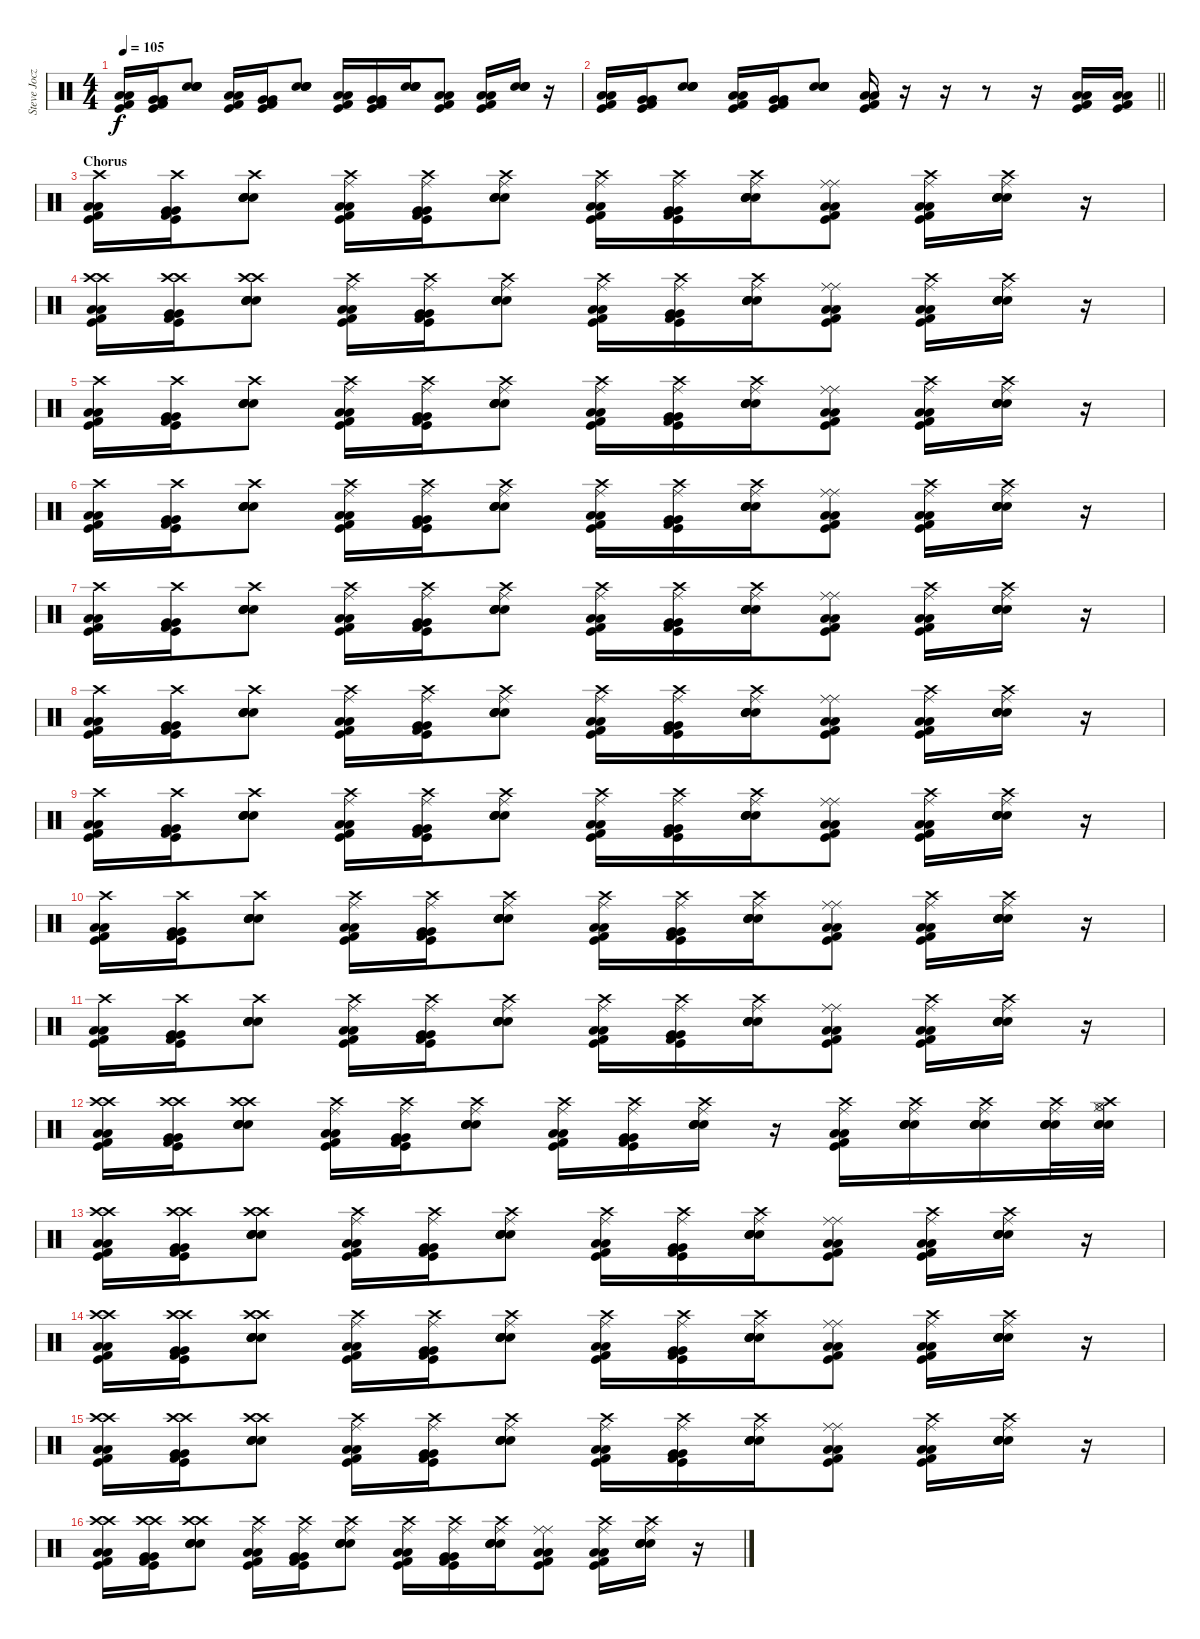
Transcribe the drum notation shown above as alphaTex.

\track ("Steve Jocz" "Steve Jocz") {instrument percussion}
\staff {score}
\articulation defaults
\ts (4 4)
\tempo 105
\clef neutral
\ks c
("Low Floor Tom (hit)" "Low Floor Tom (hit)" "Kick (hit)" "Kick (hit) 2").16{dy f} ("Very Low Tom (hit)" "Very Low Tom (hit)" "Kick (hit)" "Kick (hit) 2").16 ("Snare (hit) 2" "Snare (hit) 2" "Electric Snare (hit)" "Electric Snare (hit)").8 ("Low Floor Tom (hit)" "Low Floor Tom (hit)" "Kick (hit)" "Kick (hit) 2").16 ("Very Low Tom (hit)" "Very Low Tom (hit)" "Kick (hit)" "Kick (hit) 2").16 ("Snare (hit) 2" "Snare (hit) 2" "Electric Snare (hit)" "Electric Snare (hit)").8 ("Low Floor Tom (hit)" "Low Floor Tom (hit)" "Kick (hit)" "Kick (hit) 2").16 ("Very Low Tom (hit)" "Very Low Tom (hit)" "Kick (hit)" "Kick (hit) 2").16 ("Snare (hit) 2" "Snare (hit) 2" "Electric Snare (hit)" "Electric Snare (hit)").16 ("Low Floor Tom (hit)" "Low Floor Tom (hit)" "Kick (hit)" "Kick (hit) 2").8 ("Low Floor Tom (hit)" "Low Floor Tom (hit)" "Kick (hit)" "Kick (hit) 2").16 ("Snare (hit) 2" "Snare (hit) 2" "Electric Snare (hit)" "Electric Snare (hit)").16 r.16 |
\barLineRight lightlight
("Low Floor Tom (hit)" "Low Floor Tom (hit)" "Kick (hit)" "Kick (hit) 2").16 ("Very Low Tom (hit)" "Very Low Tom (hit)" "Kick (hit)" "Kick (hit) 2").16 ("Snare (hit) 2" "Snare (hit) 2" "Electric Snare (hit)" "Electric Snare (hit)").8 ("Low Floor Tom (hit)" "Low Floor Tom (hit)" "Kick (hit)" "Kick (hit) 2").16 ("Very Low Tom (hit)" "Very Low Tom (hit)" "Kick (hit)" "Kick (hit) 2").16 ("Snare (hit) 2" "Snare (hit) 2" "Electric Snare (hit)" "Electric Snare (hit)").8 ("Low Floor Tom (hit)" "Low Floor Tom (hit)" "Kick (hit)" "Kick (hit) 2").16 r.16 r.16 r.8 r.16 ("Low Floor Tom (hit)" "Low Floor Tom (hit)" "Kick (hit)" "Kick (hit) 2").16 ("Low Floor Tom (hit)" "Low Floor Tom (hit)" "Kick (hit)" "Kick (hit) 2").16 |
\section ("" "Chorus")
("Low Floor Tom (hit)" "Crash high (hit)" "Low Floor Tom (hit)" "Kick (hit)" "Kick (hit) 2").16 ("Very Low Tom (hit)" "Crash high (hit)" "Very Low Tom (hit)" "Kick (hit)" "Kick (hit) 2").16 ("Snare (hit) 2" "Crash high (hit)" "Snare (hit) 2" "Electric Snare (hit)" "Electric Snare (hit)").8 ("Low Floor Tom (hit)" "Ride (middle)" "Low Floor Tom (hit)" "Kick (hit)" "Crash high (hit)" "Kick (hit) 2").16 ("Very Low Tom (hit)" "Ride (middle)" "Very Low Tom (hit)" "Kick (hit)" "Crash high (hit)" "Kick (hit) 2").16 ("Snare (hit) 2" "Ride (middle)" "Snare (hit) 2" "Electric Snare (hit)" "Crash high (hit)" "Electric Snare (hit)").8 ("Low Floor Tom (hit)" "Ride (middle)" "Low Floor Tom (hit)" "Kick (hit)" "Crash high (hit)" "Kick (hit) 2").16 ("Very Low Tom (hit)" "Ride (middle)" "Very Low Tom (hit)" "Kick (hit)" "Crash high (hit)" "Kick (hit) 2").16 ("Snare (hit) 2" "Ride (middle)" "Snare (hit) 2" "Electric Snare (hit)" "Crash high (hit)" "Electric Snare (hit)").16 ("Low Floor Tom (hit)" "Ride (middle)" "Low Floor Tom (hit)" "Kick (hit)" "Ride (middle)" "Kick (hit) 2").8 ("Low Floor Tom (hit)" "Ride (middle)" "Low Floor Tom (hit)" "Kick (hit)" "Crash high (hit)" "Kick (hit) 2").16 ("Snare (hit) 2" "Ride (middle)" "Snare (hit) 2" "Electric Snare (hit)" "Crash high (hit)" "Electric Snare (hit)").16 r.16 |
("Low Floor Tom (hit)" "Crash high (hit)" "Low Floor Tom (hit)" "Kick (hit)" "Crash high (hit)" "Kick (hit) 2").16 ("Very Low Tom (hit)" "Crash high (hit)" "Very Low Tom (hit)" "Kick (hit)" "Crash high (hit)" "Kick (hit) 2").16 ("Snare (hit) 2" "Crash high (hit)" "Snare (hit) 2" "Electric Snare (hit)" "Crash high (hit)" "Electric Snare (hit)").8 ("Low Floor Tom (hit)" "Ride (middle)" "Low Floor Tom (hit)" "Kick (hit)" "Crash high (hit)" "Kick (hit) 2").16 ("Very Low Tom (hit)" "Ride (middle)" "Very Low Tom (hit)" "Kick (hit)" "Crash high (hit)" "Kick (hit) 2").16 ("Snare (hit) 2" "Ride (middle)" "Snare (hit) 2" "Electric Snare (hit)" "Crash high (hit)" "Electric Snare (hit)").8 ("Low Floor Tom (hit)" "Ride (middle)" "Low Floor Tom (hit)" "Kick (hit)" "Crash high (hit)" "Kick (hit) 2").16 ("Very Low Tom (hit)" "Ride (middle)" "Very Low Tom (hit)" "Kick (hit)" "Crash high (hit)" "Kick (hit) 2").16 ("Snare (hit) 2" "Ride (middle)" "Snare (hit) 2" "Electric Snare (hit)" "Crash high (hit)" "Electric Snare (hit)").16 ("Low Floor Tom (hit)" "Ride (middle)" "Low Floor Tom (hit)" "Kick (hit)" "Ride (middle)" "Kick (hit) 2").8 ("Low Floor Tom (hit)" "Ride (middle)" "Low Floor Tom (hit)" "Kick (hit)" "Crash high (hit)" "Kick (hit) 2").16 ("Snare (hit) 2" "Ride (middle)" "Snare (hit) 2" "Electric Snare (hit)" "Crash high (hit)" "Electric Snare (hit)").16 r.16 |
("Low Floor Tom (hit)" "Crash high (hit)" "Low Floor Tom (hit)" "Kick (hit)" "Kick (hit) 2").16 ("Very Low Tom (hit)" "Crash high (hit)" "Very Low Tom (hit)" "Kick (hit)" "Kick (hit) 2").16 ("Snare (hit) 2" "Crash high (hit)" "Snare (hit) 2" "Electric Snare (hit)" "Electric Snare (hit)").8 ("Low Floor Tom (hit)" "Ride (middle)" "Low Floor Tom (hit)" "Kick (hit)" "Crash high (hit)" "Kick (hit) 2").16 ("Very Low Tom (hit)" "Ride (middle)" "Very Low Tom (hit)" "Kick (hit)" "Crash high (hit)" "Kick (hit) 2").16 ("Snare (hit) 2" "Ride (middle)" "Snare (hit) 2" "Electric Snare (hit)" "Crash high (hit)" "Electric Snare (hit)").8 ("Low Floor Tom (hit)" "Ride (middle)" "Low Floor Tom (hit)" "Kick (hit)" "Crash high (hit)" "Kick (hit) 2").16 ("Very Low Tom (hit)" "Ride (middle)" "Very Low Tom (hit)" "Kick (hit)" "Crash high (hit)" "Kick (hit) 2").16 ("Snare (hit) 2" "Ride (middle)" "Snare (hit) 2" "Electric Snare (hit)" "Crash high (hit)" "Electric Snare (hit)").16 ("Low Floor Tom (hit)" "Ride (middle)" "Low Floor Tom (hit)" "Kick (hit)" "Ride (middle)" "Kick (hit) 2").8 ("Low Floor Tom (hit)" "Ride (middle)" "Low Floor Tom (hit)" "Kick (hit)" "Crash high (hit)" "Kick (hit) 2").16 ("Snare (hit) 2" "Ride (middle)" "Snare (hit) 2" "Electric Snare (hit)" "Crash high (hit)" "Electric Snare (hit)").16 r.16 |
("Low Floor Tom (hit)" "Crash high (hit)" "Low Floor Tom (hit)" "Kick (hit)" "Kick (hit) 2").16 ("Very Low Tom (hit)" "Crash high (hit)" "Very Low Tom (hit)" "Kick (hit)" "Kick (hit) 2").16 ("Snare (hit) 2" "Crash high (hit)" "Snare (hit) 2" "Electric Snare (hit)" "Electric Snare (hit)").8 ("Low Floor Tom (hit)" "Ride (middle)" "Low Floor Tom (hit)" "Kick (hit)" "Crash high (hit)" "Kick (hit) 2").16 ("Very Low Tom (hit)" "Ride (middle)" "Very Low Tom (hit)" "Kick (hit)" "Crash high (hit)" "Kick (hit) 2").16 ("Snare (hit) 2" "Ride (middle)" "Snare (hit) 2" "Electric Snare (hit)" "Crash high (hit)" "Electric Snare (hit)").8 ("Low Floor Tom (hit)" "Ride (middle)" "Low Floor Tom (hit)" "Kick (hit)" "Crash high (hit)" "Kick (hit) 2").16 ("Very Low Tom (hit)" "Ride (middle)" "Very Low Tom (hit)" "Kick (hit)" "Crash high (hit)" "Kick (hit) 2").16 ("Snare (hit) 2" "Ride (middle)" "Snare (hit) 2" "Electric Snare (hit)" "Crash high (hit)" "Electric Snare (hit)").16 ("Low Floor Tom (hit)" "Ride (middle)" "Low Floor Tom (hit)" "Kick (hit)" "Ride (middle)" "Kick (hit) 2").8 ("Low Floor Tom (hit)" "Ride (middle)" "Low Floor Tom (hit)" "Kick (hit)" "Crash high (hit)" "Kick (hit) 2").16 ("Snare (hit) 2" "Ride (middle)" "Snare (hit) 2" "Electric Snare (hit)" "Crash high (hit)" "Electric Snare (hit)").16 r.16 |
("Low Floor Tom (hit)" "Crash high (hit)" "Low Floor Tom (hit)" "Kick (hit)" "Kick (hit) 2").16 ("Very Low Tom (hit)" "Crash high (hit)" "Very Low Tom (hit)" "Kick (hit)" "Kick (hit) 2").16 ("Snare (hit) 2" "Crash high (hit)" "Snare (hit) 2" "Electric Snare (hit)" "Electric Snare (hit)").8 ("Low Floor Tom (hit)" "Ride (middle)" "Low Floor Tom (hit)" "Kick (hit)" "Crash high (hit)" "Kick (hit) 2").16 ("Very Low Tom (hit)" "Ride (middle)" "Very Low Tom (hit)" "Kick (hit)" "Crash high (hit)" "Kick (hit) 2").16 ("Snare (hit) 2" "Ride (middle)" "Snare (hit) 2" "Electric Snare (hit)" "Crash high (hit)" "Electric Snare (hit)").8 ("Low Floor Tom (hit)" "Ride (middle)" "Low Floor Tom (hit)" "Kick (hit)" "Crash high (hit)" "Kick (hit) 2").16 ("Very Low Tom (hit)" "Ride (middle)" "Very Low Tom (hit)" "Kick (hit)" "Crash high (hit)" "Kick (hit) 2").16 ("Snare (hit) 2" "Ride (middle)" "Snare (hit) 2" "Electric Snare (hit)" "Crash high (hit)" "Electric Snare (hit)").16 ("Low Floor Tom (hit)" "Ride (middle)" "Low Floor Tom (hit)" "Kick (hit)" "Ride (middle)" "Kick (hit) 2").8 ("Low Floor Tom (hit)" "Ride (middle)" "Low Floor Tom (hit)" "Kick (hit)" "Crash high (hit)" "Kick (hit) 2").16 ("Snare (hit) 2" "Ride (middle)" "Snare (hit) 2" "Electric Snare (hit)" "Crash high (hit)" "Electric Snare (hit)").16 r.16 |
("Low Floor Tom (hit)" "Crash high (hit)" "Low Floor Tom (hit)" "Kick (hit)" "Kick (hit) 2").16 ("Very Low Tom (hit)" "Crash high (hit)" "Very Low Tom (hit)" "Kick (hit)" "Kick (hit) 2").16 ("Snare (hit) 2" "Crash high (hit)" "Snare (hit) 2" "Electric Snare (hit)" "Electric Snare (hit)").8 ("Low Floor Tom (hit)" "Ride (middle)" "Low Floor Tom (hit)" "Kick (hit)" "Crash high (hit)" "Kick (hit) 2").16 ("Very Low Tom (hit)" "Ride (middle)" "Very Low Tom (hit)" "Kick (hit)" "Crash high (hit)" "Kick (hit) 2").16 ("Snare (hit) 2" "Ride (middle)" "Snare (hit) 2" "Electric Snare (hit)" "Crash high (hit)" "Electric Snare (hit)").8 ("Low Floor Tom (hit)" "Ride (middle)" "Low Floor Tom (hit)" "Kick (hit)" "Crash high (hit)" "Kick (hit) 2").16 ("Very Low Tom (hit)" "Ride (middle)" "Very Low Tom (hit)" "Kick (hit)" "Crash high (hit)" "Kick (hit) 2").16 ("Snare (hit) 2" "Ride (middle)" "Snare (hit) 2" "Electric Snare (hit)" "Crash high (hit)" "Electric Snare (hit)").16 ("Low Floor Tom (hit)" "Ride (middle)" "Low Floor Tom (hit)" "Kick (hit)" "Ride (middle)" "Kick (hit) 2").8 ("Low Floor Tom (hit)" "Ride (middle)" "Low Floor Tom (hit)" "Kick (hit)" "Crash high (hit)" "Kick (hit) 2").16 ("Snare (hit) 2" "Ride (middle)" "Snare (hit) 2" "Electric Snare (hit)" "Crash high (hit)" "Electric Snare (hit)").16 r.16 |
("Low Floor Tom (hit)" "Crash high (hit)" "Low Floor Tom (hit)" "Kick (hit)" "Kick (hit) 2").16 ("Very Low Tom (hit)" "Crash high (hit)" "Very Low Tom (hit)" "Kick (hit)" "Kick (hit) 2").16 ("Snare (hit) 2" "Crash high (hit)" "Snare (hit) 2" "Electric Snare (hit)" "Electric Snare (hit)").8 ("Low Floor Tom (hit)" "Ride (middle)" "Low Floor Tom (hit)" "Kick (hit)" "Crash high (hit)" "Kick (hit) 2").16 ("Very Low Tom (hit)" "Ride (middle)" "Very Low Tom (hit)" "Kick (hit)" "Crash high (hit)" "Kick (hit) 2").16 ("Snare (hit) 2" "Ride (middle)" "Snare (hit) 2" "Electric Snare (hit)" "Crash high (hit)" "Electric Snare (hit)").8 ("Low Floor Tom (hit)" "Ride (middle)" "Low Floor Tom (hit)" "Kick (hit)" "Crash high (hit)" "Kick (hit) 2").16 ("Very Low Tom (hit)" "Ride (middle)" "Very Low Tom (hit)" "Kick (hit)" "Crash high (hit)" "Kick (hit) 2").16 ("Snare (hit) 2" "Ride (middle)" "Snare (hit) 2" "Electric Snare (hit)" "Crash high (hit)" "Electric Snare (hit)").16 ("Low Floor Tom (hit)" "Ride (middle)" "Low Floor Tom (hit)" "Kick (hit)" "Ride (middle)" "Kick (hit) 2").8 ("Low Floor Tom (hit)" "Ride (middle)" "Low Floor Tom (hit)" "Kick (hit)" "Crash high (hit)" "Kick (hit) 2").16 ("Snare (hit) 2" "Ride (middle)" "Snare (hit) 2" "Electric Snare (hit)" "Crash high (hit)" "Electric Snare (hit)").16 r.16 |
("Low Floor Tom (hit)" "Crash high (hit)" "Low Floor Tom (hit)" "Kick (hit)" "Kick (hit) 2").16 ("Very Low Tom (hit)" "Crash high (hit)" "Very Low Tom (hit)" "Kick (hit)" "Kick (hit) 2").16 ("Snare (hit) 2" "Crash high (hit)" "Snare (hit) 2" "Electric Snare (hit)" "Electric Snare (hit)").8 ("Low Floor Tom (hit)" "Ride (middle)" "Low Floor Tom (hit)" "Kick (hit)" "Crash high (hit)" "Kick (hit) 2").16 ("Very Low Tom (hit)" "Ride (middle)" "Very Low Tom (hit)" "Kick (hit)" "Crash high (hit)" "Kick (hit) 2").16 ("Snare (hit) 2" "Ride (middle)" "Snare (hit) 2" "Electric Snare (hit)" "Crash high (hit)" "Electric Snare (hit)").8 ("Low Floor Tom (hit)" "Ride (middle)" "Low Floor Tom (hit)" "Kick (hit)" "Crash high (hit)" "Kick (hit) 2").16 ("Very Low Tom (hit)" "Ride (middle)" "Very Low Tom (hit)" "Kick (hit)" "Crash high (hit)" "Kick (hit) 2").16 ("Snare (hit) 2" "Ride (middle)" "Snare (hit) 2" "Electric Snare (hit)" "Crash high (hit)" "Electric Snare (hit)").16 ("Low Floor Tom (hit)" "Ride (middle)" "Low Floor Tom (hit)" "Kick (hit)" "Ride (middle)" "Kick (hit) 2").8 ("Low Floor Tom (hit)" "Ride (middle)" "Low Floor Tom (hit)" "Kick (hit)" "Crash high (hit)" "Kick (hit) 2").16 ("Snare (hit) 2" "Ride (middle)" "Snare (hit) 2" "Electric Snare (hit)" "Crash high (hit)" "Electric Snare (hit)").16 r.16 |
("Low Floor Tom (hit)" "Crash high (hit)" "Low Floor Tom (hit)" "Kick (hit)" "Kick (hit) 2").16 ("Very Low Tom (hit)" "Crash high (hit)" "Very Low Tom (hit)" "Kick (hit)" "Kick (hit) 2").16 ("Snare (hit) 2" "Crash high (hit)" "Snare (hit) 2" "Electric Snare (hit)" "Electric Snare (hit)").8 ("Low Floor Tom (hit)" "Ride (middle)" "Low Floor Tom (hit)" "Kick (hit)" "Crash high (hit)" "Kick (hit) 2").16 ("Very Low Tom (hit)" "Ride (middle)" "Very Low Tom (hit)" "Kick (hit)" "Crash high (hit)" "Kick (hit) 2").16 ("Snare (hit) 2" "Ride (middle)" "Snare (hit) 2" "Electric Snare (hit)" "Crash high (hit)" "Electric Snare (hit)").8 ("Low Floor Tom (hit)" "Ride (middle)" "Low Floor Tom (hit)" "Kick (hit)" "Crash high (hit)" "Kick (hit) 2").16 ("Very Low Tom (hit)" "Ride (middle)" "Very Low Tom (hit)" "Kick (hit)" "Crash high (hit)" "Kick (hit) 2").16 ("Snare (hit) 2" "Ride (middle)" "Snare (hit) 2" "Electric Snare (hit)" "Crash high (hit)" "Electric Snare (hit)").16 ("Low Floor Tom (hit)" "Ride (middle)" "Low Floor Tom (hit)" "Kick (hit)" "Ride (middle)" "Kick (hit) 2").8 ("Low Floor Tom (hit)" "Ride (middle)" "Low Floor Tom (hit)" "Kick (hit)" "Crash high (hit)" "Kick (hit) 2").16 ("Snare (hit) 2" "Ride (middle)" "Snare (hit) 2" "Electric Snare (hit)" "Crash high (hit)" "Electric Snare (hit)").16 r.16 |
("Low Floor Tom (hit)" "Crash high (hit)" "Low Floor Tom (hit)" "Kick (hit)" "Crash high (hit)" "Kick (hit) 2").16 ("Very Low Tom (hit)" "Crash high (hit)" "Very Low Tom (hit)" "Kick (hit)" "Crash high (hit)" "Kick (hit) 2").16 ("Snare (hit) 2" "Crash high (hit)" "Snare (hit) 2" "Electric Snare (hit)" "Crash high (hit)" "Electric Snare (hit)").8 ("Low Floor Tom (hit)" "Ride (middle)" "Low Floor Tom (hit)" "Kick (hit)" "Crash high (hit)" "Kick (hit) 2").16 ("Very Low Tom (hit)" "Ride (middle)" "Very Low Tom (hit)" "Kick (hit)" "Crash high (hit)" "Kick (hit) 2").16 ("Snare (hit) 2" "Ride (middle)" "Snare (hit) 2" "Electric Snare (hit)" "Crash high (hit)" "Electric Snare (hit)").8 ("Low Floor Tom (hit)" "Ride (middle)" "Low Floor Tom (hit)" "Kick (hit)" "Crash high (hit)" "Kick (hit) 2").16 ("Very Low Tom (hit)" "Ride (middle)" "Very Low Tom (hit)" "Kick (hit)" "Crash high (hit)" "Kick (hit) 2").16 ("Snare (hit) 2" "Ride (middle)" "Snare (hit) 2" "Electric Snare (hit)" "Crash high (hit)" "Electric Snare (hit)").16 r.16 ("Low Floor Tom (hit)" "Ride (middle)" "Low Floor Tom (hit)" "Kick (hit)" "Crash high (hit)" "Kick (hit) 2").16 ("Snare (hit) 2" "Ride (middle)" "Snare (hit) 2" "Electric Snare (hit)" "Crash high (hit)" "Electric Snare (hit)").16 ("Snare (hit) 2" "Ride (middle)" "Snare (hit) 2" "Electric Snare (hit)" "Crash high (hit)" "Electric Snare (hit)").16 ("Snare (hit) 2" "Ride (middle)" "Snare (hit) 2" "Electric Snare (hit)" "Crash high (hit)" "Electric Snare (hit)").32 ("Snare (hit) 2" "Snare (hit) 2" "Electric Snare (hit)" "Crash high (hit)" "Hi-Hat (open)" "Hi-Hat (closed)").32 |
("Low Floor Tom (hit)" "Crash high (hit)" "Low Floor Tom (hit)" "Kick (hit)" "Crash high (hit)" "Kick (hit) 2").16 ("Very Low Tom (hit)" "Crash high (hit)" "Very Low Tom (hit)" "Kick (hit)" "Crash high (hit)" "Kick (hit) 2").16 ("Snare (hit) 2" "Crash high (hit)" "Snare (hit) 2" "Electric Snare (hit)" "Crash high (hit)" "Electric Snare (hit)").8 ("Low Floor Tom (hit)" "Ride (middle)" "Low Floor Tom (hit)" "Kick (hit)" "Crash high (hit)" "Kick (hit) 2").16 ("Very Low Tom (hit)" "Ride (middle)" "Very Low Tom (hit)" "Kick (hit)" "Crash high (hit)" "Kick (hit) 2").16 ("Snare (hit) 2" "Ride (middle)" "Snare (hit) 2" "Electric Snare (hit)" "Crash high (hit)" "Electric Snare (hit)").8 ("Low Floor Tom (hit)" "Ride (middle)" "Low Floor Tom (hit)" "Kick (hit)" "Crash high (hit)" "Kick (hit) 2").16 ("Very Low Tom (hit)" "Ride (middle)" "Very Low Tom (hit)" "Kick (hit)" "Crash high (hit)" "Kick (hit) 2").16 ("Snare (hit) 2" "Ride (middle)" "Snare (hit) 2" "Electric Snare (hit)" "Crash high (hit)" "Electric Snare (hit)").16 ("Low Floor Tom (hit)" "Ride (middle)" "Low Floor Tom (hit)" "Kick (hit)" "Ride (middle)" "Kick (hit) 2").8 ("Low Floor Tom (hit)" "Ride (middle)" "Low Floor Tom (hit)" "Kick (hit)" "Crash high (hit)" "Kick (hit) 2").16 ("Snare (hit) 2" "Ride (middle)" "Snare (hit) 2" "Electric Snare (hit)" "Crash high (hit)" "Electric Snare (hit)").16 r.16 |
("Low Floor Tom (hit)" "Crash high (hit)" "Low Floor Tom (hit)" "Kick (hit)" "Crash high (hit)" "Kick (hit) 2").16 ("Very Low Tom (hit)" "Crash high (hit)" "Very Low Tom (hit)" "Kick (hit)" "Crash high (hit)" "Kick (hit) 2").16 ("Snare (hit) 2" "Crash high (hit)" "Snare (hit) 2" "Electric Snare (hit)" "Crash high (hit)" "Electric Snare (hit)").8 ("Low Floor Tom (hit)" "Ride (middle)" "Low Floor Tom (hit)" "Kick (hit)" "Crash high (hit)" "Kick (hit) 2").16 ("Very Low Tom (hit)" "Ride (middle)" "Very Low Tom (hit)" "Kick (hit)" "Crash high (hit)" "Kick (hit) 2").16 ("Snare (hit) 2" "Ride (middle)" "Snare (hit) 2" "Electric Snare (hit)" "Crash high (hit)" "Electric Snare (hit)").8 ("Low Floor Tom (hit)" "Ride (middle)" "Low Floor Tom (hit)" "Kick (hit)" "Crash high (hit)" "Kick (hit) 2").16 ("Very Low Tom (hit)" "Ride (middle)" "Very Low Tom (hit)" "Kick (hit)" "Crash high (hit)" "Kick (hit) 2").16 ("Snare (hit) 2" "Ride (middle)" "Snare (hit) 2" "Electric Snare (hit)" "Crash high (hit)" "Electric Snare (hit)").16 ("Low Floor Tom (hit)" "Ride (middle)" "Low Floor Tom (hit)" "Kick (hit)" "Ride (middle)" "Kick (hit) 2").8 ("Low Floor Tom (hit)" "Ride (middle)" "Low Floor Tom (hit)" "Kick (hit)" "Crash high (hit)" "Kick (hit) 2").16 ("Snare (hit) 2" "Ride (middle)" "Snare (hit) 2" "Electric Snare (hit)" "Crash high (hit)" "Electric Snare (hit)").16 r.16 |
("Low Floor Tom (hit)" "Crash high (hit)" "Low Floor Tom (hit)" "Kick (hit)" "Crash high (hit)" "Kick (hit) 2").16 ("Very Low Tom (hit)" "Crash high (hit)" "Very Low Tom (hit)" "Kick (hit)" "Crash high (hit)" "Kick (hit) 2").16 ("Snare (hit) 2" "Crash high (hit)" "Snare (hit) 2" "Electric Snare (hit)" "Crash high (hit)" "Electric Snare (hit)").8 ("Low Floor Tom (hit)" "Ride (middle)" "Low Floor Tom (hit)" "Kick (hit)" "Crash high (hit)" "Kick (hit) 2").16 ("Very Low Tom (hit)" "Ride (middle)" "Very Low Tom (hit)" "Kick (hit)" "Crash high (hit)" "Kick (hit) 2").16 ("Snare (hit) 2" "Ride (middle)" "Snare (hit) 2" "Electric Snare (hit)" "Crash high (hit)" "Electric Snare (hit)").8 ("Low Floor Tom (hit)" "Ride (middle)" "Low Floor Tom (hit)" "Kick (hit)" "Crash high (hit)" "Kick (hit) 2").16 ("Very Low Tom (hit)" "Ride (middle)" "Very Low Tom (hit)" "Kick (hit)" "Crash high (hit)" "Kick (hit) 2").16 ("Snare (hit) 2" "Ride (middle)" "Snare (hit) 2" "Electric Snare (hit)" "Crash high (hit)" "Electric Snare (hit)").16 ("Low Floor Tom (hit)" "Ride (middle)" "Low Floor Tom (hit)" "Kick (hit)" "Ride (middle)" "Kick (hit) 2").8 ("Low Floor Tom (hit)" "Ride (middle)" "Low Floor Tom (hit)" "Kick (hit)" "Crash high (hit)" "Kick (hit) 2").16 ("Snare (hit) 2" "Ride (middle)" "Snare (hit) 2" "Electric Snare (hit)" "Crash high (hit)" "Electric Snare (hit)").16 r.16 |
("Low Floor Tom (hit)" "Crash high (hit)" "Low Floor Tom (hit)" "Kick (hit)" "Crash high (hit)" "Kick (hit) 2").16 ("Very Low Tom (hit)" "Crash high (hit)" "Very Low Tom (hit)" "Kick (hit)" "Crash high (hit)" "Kick (hit) 2").16 ("Snare (hit) 2" "Crash high (hit)" "Snare (hit) 2" "Electric Snare (hit)" "Crash high (hit)" "Electric Snare (hit)").8 ("Low Floor Tom (hit)" "Ride (middle)" "Low Floor Tom (hit)" "Kick (hit)" "Crash high (hit)" "Kick (hit) 2").16 ("Very Low Tom (hit)" "Ride (middle)" "Very Low Tom (hit)" "Kick (hit)" "Crash high (hit)" "Kick (hit) 2").16 ("Snare (hit) 2" "Ride (middle)" "Snare (hit) 2" "Electric Snare (hit)" "Crash high (hit)" "Electric Snare (hit)").8 ("Low Floor Tom (hit)" "Ride (middle)" "Low Floor Tom (hit)" "Kick (hit)" "Crash high (hit)" "Kick (hit) 2").16 ("Very Low Tom (hit)" "Ride (middle)" "Very Low Tom (hit)" "Kick (hit)" "Crash high (hit)" "Kick (hit) 2").16 ("Snare (hit) 2" "Ride (middle)" "Snare (hit) 2" "Electric Snare (hit)" "Crash high (hit)" "Electric Snare (hit)").16 ("Low Floor Tom (hit)" "Ride (middle)" "Low Floor Tom (hit)" "Kick (hit)" "Ride (middle)" "Kick (hit) 2").8 ("Low Floor Tom (hit)" "Ride (middle)" "Low Floor Tom (hit)" "Kick (hit)" "Crash high (hit)" "Kick (hit) 2").16 ("Snare (hit) 2" "Ride (middle)" "Snare (hit) 2" "Electric Snare (hit)" "Crash high (hit)" "Electric Snare (hit)").16 r.16
